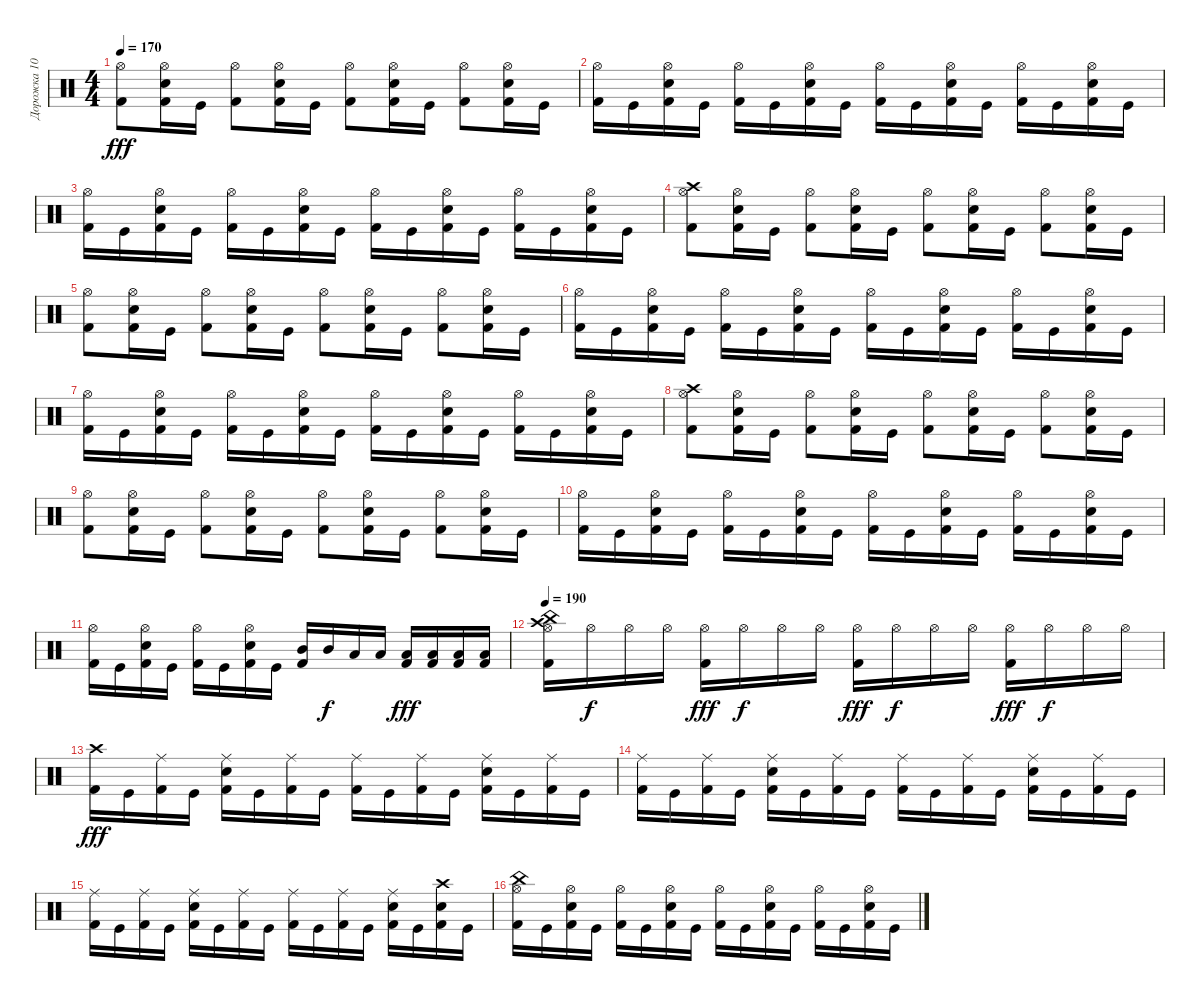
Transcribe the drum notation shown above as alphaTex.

\track ("Дорожка 10" "Дорожка 10") {instrument percussion}
\staff {score}
\articulation defaults
\ts (4 4)
\tempo 170
\clef neutral
\ks c
("Kick (hit) 2" "Hi-Hat (open)").8{dy fff} ("Hi-Hat (open)" "Electric Snare (hit)" "Kick (hit) 2").16 "Kick (hit)".16 ("Kick (hit) 2" "Hi-Hat (open)").8 ("Hi-Hat (open)" "Kick (hit) 2" "Electric Snare (hit)").16 "Kick (hit)".16 ("Kick (hit) 2" "Hi-Hat (open)").8 ("Kick (hit) 2" "Hi-Hat (open)" "Electric Snare (hit)").16 "Kick (hit)".16 ("Kick (hit) 2" "Hi-Hat (open)").8 ("Electric Snare (hit)" "Kick (hit) 2" "Hi-Hat (open)").16 "Kick (hit)".16 |
("Kick (hit) 2" "Hi-Hat (open)").16 "Kick (hit)".16 ("Kick (hit) 2" "Hi-Hat (open)" "Electric Snare (hit)").16 "Kick (hit)".16 ("Hi-Hat (open)" "Kick (hit) 2").16 "Kick (hit)".16 ("Kick (hit) 2" "Hi-Hat (open)" "Electric Snare (hit)").16 "Kick (hit)".16 ("Hi-Hat (open)" "Kick (hit) 2").16 "Kick (hit)".16 ("Hi-Hat (open)" "Electric Snare (hit)" "Kick (hit) 2").16 "Kick (hit)".16 ("Kick (hit) 2" "Hi-Hat (open)").16 "Kick (hit)".16 ("Electric Snare (hit)" "Kick (hit) 2" "Hi-Hat (open)").16 "Kick (hit)".16 |
("Hi-Hat (open)" "Kick (hit) 2").16 "Kick (hit)".16 ("Kick (hit) 2" "Hi-Hat (open)" "Electric Snare (hit)").16 "Kick (hit)".16 ("Hi-Hat (open)" "Kick (hit) 2").16 "Kick (hit)".16 ("Hi-Hat (open)" "Electric Snare (hit)" "Kick (hit) 2").16 "Kick (hit)".16 ("Kick (hit) 2" "Hi-Hat (open)").16 "Kick (hit)".16 ("Electric Snare (hit)" "Kick (hit) 2" "Hi-Hat (open)").16 "Kick (hit)".16 ("Hi-Hat (open)" "Kick (hit) 2").16 "Kick (hit)".16 ("Electric Snare (hit)" "Hi-Hat (open)" "Kick (hit) 2").16 "Kick (hit)".16 |
("Kick (hit) 2" "Hi-Hat (open)" "Crash high (hit)").8 ("Hi-Hat (open)" "Electric Snare (hit)" "Kick (hit) 2").16 "Kick (hit)".16 ("Kick (hit) 2" "Hi-Hat (open)").8 ("Electric Snare (hit)" "Kick (hit) 2" "Hi-Hat (open)").16 "Kick (hit)".16 ("Hi-Hat (open)" "Kick (hit) 2").8 ("Electric Snare (hit)" "Hi-Hat (open)" "Kick (hit) 2").16 "Kick (hit)".16 ("Kick (hit) 2" "Hi-Hat (open)").8 ("Kick (hit) 2" "Hi-Hat (open)" "Electric Snare (hit)").16 "Kick (hit)".16 |
("Hi-Hat (open)" "Kick (hit) 2").8 ("Hi-Hat (open)" "Kick (hit) 2" "Electric Snare (hit)").16 "Kick (hit)".16 ("Kick (hit) 2" "Hi-Hat (open)").8 ("Kick (hit) 2" "Electric Snare (hit)" "Hi-Hat (open)").16 "Kick (hit)".16 ("Kick (hit) 2" "Hi-Hat (open)").8 ("Electric Snare (hit)" "Hi-Hat (open)" "Kick (hit) 2").16 "Kick (hit)".16 ("Kick (hit) 2" "Hi-Hat (open)").8 ("Hi-Hat (open)" "Kick (hit) 2" "Electric Snare (hit)").16 "Kick (hit)".16 |
("Kick (hit) 2" "Hi-Hat (open)").16 "Kick (hit)".16 ("Hi-Hat (open)" "Kick (hit) 2" "Electric Snare (hit)").16 "Kick (hit)".16 ("Hi-Hat (open)" "Kick (hit) 2").16 "Kick (hit)".16 ("Kick (hit) 2" "Electric Snare (hit)" "Hi-Hat (open)").16 "Kick (hit)".16 ("Hi-Hat (open)" "Kick (hit) 2").16 "Kick (hit)".16 ("Electric Snare (hit)" "Hi-Hat (open)" "Kick (hit) 2").16 "Kick (hit)".16 ("Hi-Hat (open)" "Kick (hit) 2").16 "Kick (hit)".16 ("Kick (hit) 2" "Electric Snare (hit)" "Hi-Hat (open)").16 "Kick (hit)".16 |
("Hi-Hat (open)" "Kick (hit) 2").16 "Kick (hit)".16 ("Kick (hit) 2" "Electric Snare (hit)" "Hi-Hat (open)").16 "Kick (hit)".16 ("Hi-Hat (open)" "Kick (hit) 2").16 "Kick (hit)".16 ("Kick (hit) 2" "Hi-Hat (open)" "Electric Snare (hit)").16 "Kick (hit)".16 ("Hi-Hat (open)" "Kick (hit) 2").16 "Kick (hit)".16 ("Hi-Hat (open)" "Electric Snare (hit)" "Kick (hit) 2").16 "Kick (hit)".16 ("Hi-Hat (open)" "Kick (hit) 2").16 "Kick (hit)".16 ("Hi-Hat (open)" "Kick (hit) 2" "Electric Snare (hit)").16 "Kick (hit)".16 |
("Kick (hit) 2" "Hi-Hat (open)" "Crash high (hit)").8 ("Electric Snare (hit)" "Hi-Hat (open)" "Kick (hit) 2").16 "Kick (hit)".16 ("Hi-Hat (open)" "Kick (hit) 2").8 ("Electric Snare (hit)" "Hi-Hat (open)" "Kick (hit) 2").16 "Kick (hit)".16 ("Hi-Hat (open)" "Kick (hit) 2").8 ("Kick (hit) 2" "Electric Snare (hit)" "Hi-Hat (open)").16 "Kick (hit)".16 ("Kick (hit) 2" "Hi-Hat (open)").8 ("Electric Snare (hit)" "Hi-Hat (open)" "Kick (hit) 2").16 "Kick (hit)".16 |
("Hi-Hat (open)" "Kick (hit) 2").8 ("Kick (hit) 2" "Hi-Hat (open)" "Electric Snare (hit)").16 "Kick (hit)".16 ("Kick (hit) 2" "Hi-Hat (open)").8 ("Hi-Hat (open)" "Electric Snare (hit)" "Kick (hit) 2").16 "Kick (hit)".16 ("Kick (hit) 2" "Hi-Hat (open)").8 ("Hi-Hat (open)" "Electric Snare (hit)" "Kick (hit) 2").16 "Kick (hit)".16 ("Hi-Hat (open)" "Kick (hit) 2").8 ("Hi-Hat (open)" "Kick (hit) 2" "Electric Snare (hit)").16 "Kick (hit)".16 |
("Hi-Hat (open)" "Kick (hit) 2").16 "Kick (hit)".16 ("Hi-Hat (open)" "Electric Snare (hit)" "Kick (hit) 2").16 "Kick (hit)".16 ("Kick (hit) 2" "Hi-Hat (open)").16 "Kick (hit)".16 ("Hi-Hat (open)" "Electric Snare (hit)" "Kick (hit) 2").16 "Kick (hit)".16 ("Kick (hit) 2" "Hi-Hat (open)").16 "Kick (hit)".16 ("Kick (hit) 2" "Hi-Hat (open)" "Electric Snare (hit)").16 "Kick (hit)".16 ("Kick (hit) 2" "Hi-Hat (open)").16 "Kick (hit)".16 ("Electric Snare (hit)" "Kick (hit) 2" "Hi-Hat (open)").16 "Kick (hit)".16 |
("Kick (hit) 2" "Hi-Hat (open)").16 "Kick (hit)".16 ("Kick (hit) 2" "Electric Snare (hit)" "Hi-Hat (open)").16 "Kick (hit)".16 ("Kick (hit) 2" "Hi-Hat (open)").16 "Kick (hit)".16 ("Electric Snare (hit)" "Hi-Hat (open)" "Kick (hit) 2").16 "Kick (hit)".16 ("Kick (hit) 2" "Mid Tom (hit)").16 "Mid Tom (hit)".16{dy f} "Low Tom (hit)".16 "Low Tom (hit)".16 ("Kick (hit) 2" "Low Floor Tom (hit)").16{dy fff} ("Low Floor Tom (hit)" "Kick (hit) 2").16 ("Low Floor Tom (hit)" "Kick (hit) 2").16 ("Low Floor Tom (hit)" "Kick (hit) 2").16 |
\tempo 190
("Kick (hit) 2" "Crash high (hit)" "China (hit)" "Hi-Hat (open)").16 "Hi-Hat (open)".16{dy f} "Hi-Hat (open)".16 "Hi-Hat (open)".16 ("Hi-Hat (open)" "Kick (hit) 2").16{dy fff} "Hi-Hat (open)".16{dy f} "Hi-Hat (open)".16 "Hi-Hat (open)".16 ("Hi-Hat (open)" "Kick (hit) 2").16{dy fff} "Hi-Hat (open)".16{dy f} "Hi-Hat (open)".16 "Hi-Hat (open)".16 ("Hi-Hat (open)" "Kick (hit) 2").16{dy fff} "Hi-Hat (open)".16{dy f} "Hi-Hat (open)".16 "Hi-Hat (open)".16 |
("Kick (hit) 2" "Crash high (hit)").16{dy fff} "Kick (hit)".16 ("Ride (middle)" "Kick (hit) 2").16 "Kick (hit)".16 ("Ride (middle)" "Kick (hit) 2" "Electric Snare (hit)").16 "Kick (hit)".16 ("Kick (hit) 2" "Ride (middle)").16 "Kick (hit)".16 ("Ride (middle)" "Kick (hit) 2").16 "Kick (hit)".16 ("Kick (hit) 2" "Ride (middle)").16 "Kick (hit)".16 ("Ride (middle)" "Electric Snare (hit)" "Kick (hit) 2").16 "Kick (hit)".16 ("Ride (middle)" "Kick (hit) 2").16 "Kick (hit)".16 |
("Kick (hit) 2" "Ride (middle)").16 "Kick (hit)".16 ("Ride (middle)" "Kick (hit) 2").16 "Kick (hit)".16 ("Ride (middle)" "Electric Snare (hit)" "Kick (hit) 2").16 "Kick (hit)".16 ("Ride (middle)" "Kick (hit) 2").16 "Kick (hit)".16 ("Ride (middle)" "Kick (hit) 2").16 "Kick (hit)".16 ("Kick (hit) 2" "Ride (middle)").16 "Kick (hit)".16 ("Electric Snare (hit)" "Kick (hit) 2" "Ride (middle)").16 "Kick (hit)".16 ("Kick (hit) 2" "Ride (middle)").16 "Kick (hit)".16 |
("Kick (hit) 2" "Ride (middle)").16 "Kick (hit)".16 ("Kick (hit) 2" "Ride (middle)").16 "Kick (hit)".16 ("Electric Snare (hit)" "Kick (hit) 2" "Ride (middle)").16 "Kick (hit)".16 ("Kick (hit) 2" "Ride (middle)").16 "Kick (hit)".16 ("Kick (hit) 2" "Ride (middle)").16 "Kick (hit)".16 ("Kick (hit) 2" "Ride (middle)").16 "Kick (hit)".16 ("Kick (hit) 2" "Ride (middle)" "Electric Snare (hit)").16 "Kick (hit)".16 ("Kick (hit) 2" "Crash high (hit)" "Electric Snare (hit)").16 "Kick (hit)".16 |
("Hi-Hat (open)" "Kick (hit) 2" "China (hit)").16 "Kick (hit)".16 ("Hi-Hat (open)" "Electric Snare (hit)" "Kick (hit) 2").16 "Kick (hit)".16 ("Hi-Hat (open)" "Kick (hit) 2").16 "Kick (hit)".16 ("Electric Snare (hit)" "Hi-Hat (open)" "Kick (hit) 2").16 "Kick (hit)".16 ("Kick (hit) 2" "Hi-Hat (open)").16 "Kick (hit)".16 ("Electric Snare (hit)" "Hi-Hat (open)" "Kick (hit) 2").16 "Kick (hit)".16 ("Hi-Hat (open)" "Kick (hit) 2").16 "Kick (hit)".16 ("Kick (hit) 2" "Electric Snare (hit)" "Hi-Hat (open)").16 "Kick (hit)".16
